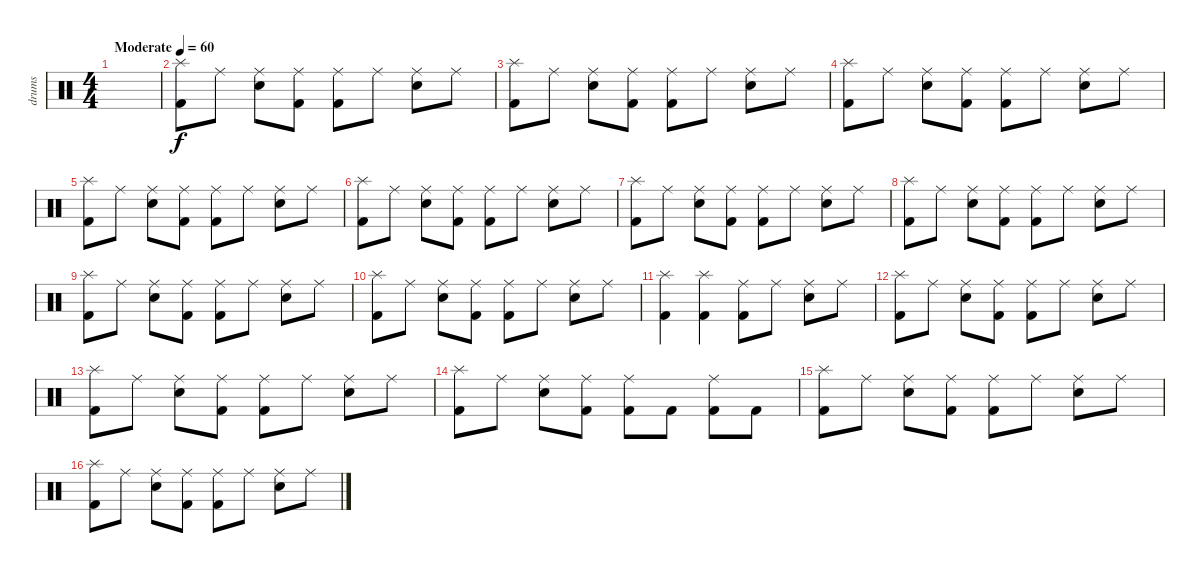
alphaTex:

\track ("drums" "drums") {instrument percussion}
\staff {score}
\articulation defaults
\ts (4 4)
\tempo (60 "Moderate")
\clef neutral
\ks c
|
("Splash (hit)" "Kick (hit) 2").8 "Ride (middle)".8 ("Ride (middle)" "Electric Snare (hit)").8 ("Ride (middle)" "Kick (hit) 2").8 ("Ride (middle)" "Kick (hit) 2").8 "Ride (middle)".8 ("Ride (middle)" "Electric Snare (hit)").8 "Ride (middle)".8 |
("Splash (hit)" "Kick (hit) 2").8 "Ride (middle)".8 ("Ride (middle)" "Electric Snare (hit)").8 ("Ride (middle)" "Kick (hit) 2").8 ("Ride (middle)" "Kick (hit) 2").8 "Ride (middle)".8 ("Ride (middle)" "Electric Snare (hit)").8 "Ride (middle)".8 |
("Splash (hit)" "Kick (hit) 2").8 "Ride (middle)".8 ("Ride (middle)" "Electric Snare (hit)").8 ("Ride (middle)" "Kick (hit) 2").8 ("Ride (middle)" "Kick (hit) 2").8 "Ride (middle)".8 ("Ride (middle)" "Electric Snare (hit)").8 "Ride (middle)".8 |
("Splash (hit)" "Kick (hit) 2").8 "Ride (middle)".8 ("Ride (middle)" "Electric Snare (hit)").8 ("Ride (middle)" "Kick (hit) 2").8 ("Ride (middle)" "Kick (hit) 2").8 "Ride (middle)".8 ("Ride (middle)" "Electric Snare (hit)").8 "Ride (middle)".8 |
("Splash (hit)" "Kick (hit) 2").8 "Ride (middle)".8 ("Ride (middle)" "Electric Snare (hit)").8 ("Ride (middle)" "Kick (hit) 2").8 ("Ride (middle)" "Kick (hit) 2").8 "Ride (middle)".8 ("Ride (middle)" "Electric Snare (hit)").8 "Ride (middle)".8 |
("Splash (hit)" "Kick (hit) 2").8 "Ride (middle)".8 ("Ride (middle)" "Electric Snare (hit)").8 ("Ride (middle)" "Kick (hit) 2").8 ("Ride (middle)" "Kick (hit) 2").8 "Ride (middle)".8 ("Ride (middle)" "Electric Snare (hit)").8 "Ride (middle)".8 |
("Splash (hit)" "Kick (hit) 2").8 "Ride (middle)".8 ("Ride (middle)" "Electric Snare (hit)").8 ("Ride (middle)" "Kick (hit) 2").8 ("Ride (middle)" "Kick (hit) 2").8 "Ride (middle)".8 ("Ride (middle)" "Electric Snare (hit)").8 "Ride (middle)".8 |
("Splash (hit)" "Kick (hit) 2").8 "Ride (middle)".8 ("Ride (middle)" "Electric Snare (hit)").8 ("Ride (middle)" "Kick (hit) 2").8 ("Ride (middle)" "Kick (hit) 2").8 "Ride (middle)".8 ("Ride (middle)" "Electric Snare (hit)").8 "Ride (middle)".8 |
("Splash (hit)" "Kick (hit) 2").8 "Ride (middle)".8 ("Ride (middle)" "Electric Snare (hit)").8 ("Ride (middle)" "Kick (hit) 2").8 ("Ride (middle)" "Kick (hit) 2").8 "Ride (middle)".8 ("Ride (middle)" "Electric Snare (hit)").8 "Ride (middle)".8 |
("Splash (hit)" "Kick (hit) 2").4 ("Splash (hit)" "Kick (hit) 2").4 ("Ride (middle)" "Kick (hit) 2").8 "Ride (middle)".8 ("Ride (middle)" "Electric Snare (hit)").8 "Ride (middle)".8 |
("Splash (hit)" "Kick (hit) 2").8 "Ride (middle)".8 ("Ride (middle)" "Electric Snare (hit)").8 ("Ride (middle)" "Kick (hit) 2").8 ("Ride (middle)" "Kick (hit) 2").8 "Ride (middle)".8 ("Ride (middle)" "Electric Snare (hit)").8 "Ride (middle)".8 |
("Splash (hit)" "Kick (hit) 2").8 "Ride (middle)".8 ("Ride (middle)" "Electric Snare (hit)").8 ("Ride (middle)" "Kick (hit) 2").8 ("Ride (middle)" "Kick (hit) 2").8 "Ride (middle)".8 ("Ride (middle)" "Electric Snare (hit)").8 "Ride (middle)".8 |
("Splash (hit)" "Kick (hit) 2").8 "Ride (middle)".8 ("Ride (middle)" "Electric Snare (hit)").8 ("Ride (middle)" "Kick (hit) 2").8 ("Ride (middle)" "Kick (hit) 2").8 "Kick (hit) 2".8 ("Ride (middle)" "Kick (hit) 2").8 "Kick (hit) 2".8 |
("Splash (hit)" "Kick (hit) 2").8 "Ride (middle)".8 ("Ride (middle)" "Electric Snare (hit)").8 ("Ride (middle)" "Kick (hit) 2").8 ("Ride (middle)" "Kick (hit) 2").8 "Ride (middle)".8 ("Ride (middle)" "Electric Snare (hit)").8 "Ride (middle)".8 |
("Splash (hit)" "Kick (hit) 2").8 "Ride (middle)".8 ("Ride (middle)" "Electric Snare (hit)").8 ("Ride (middle)" "Kick (hit) 2").8 ("Ride (middle)" "Kick (hit) 2").8 "Ride (middle)".8 ("Ride (middle)" "Electric Snare (hit)").8 "Ride (middle)".8
